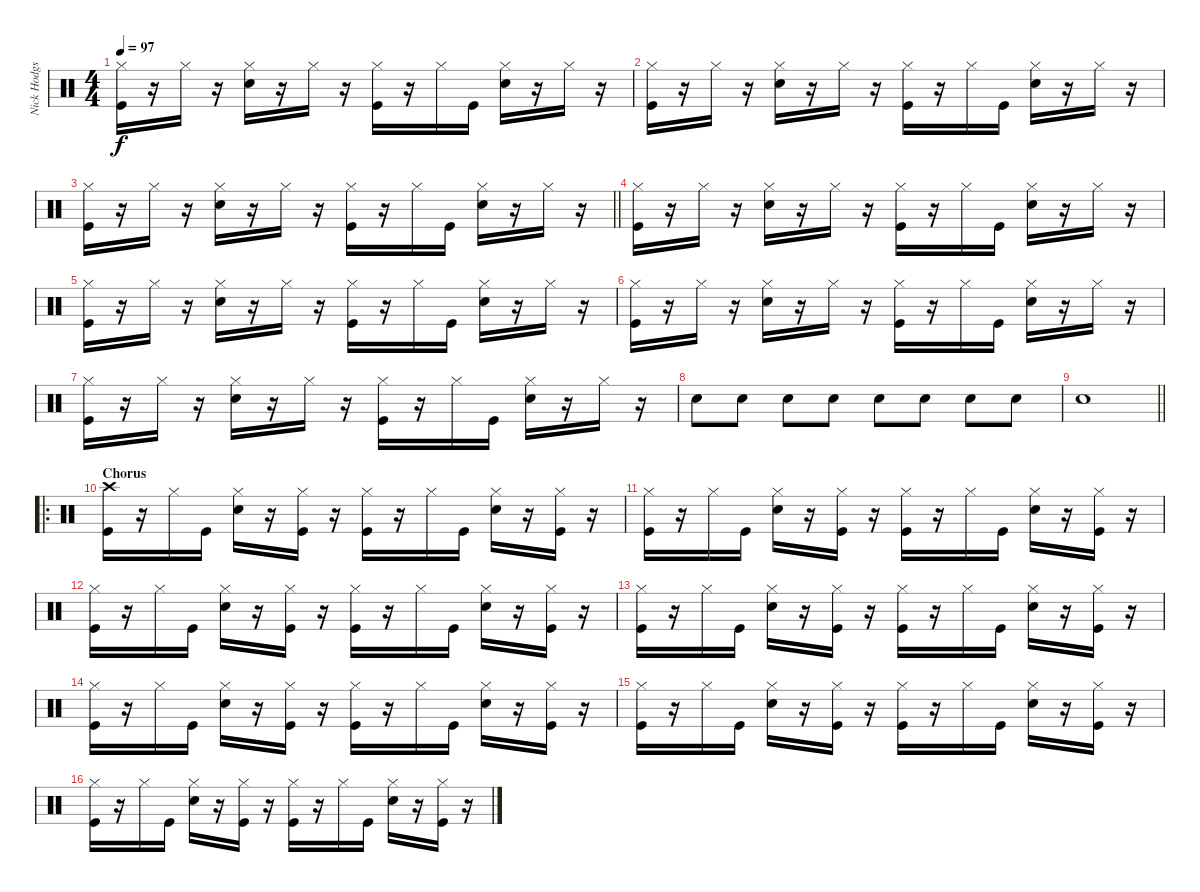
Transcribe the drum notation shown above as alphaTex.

\track ("Nick Hodgson's drums" "Nick Hodgs") {instrument percussion}
\staff {score}
\articulation defaults
\ts (4 4)
\tempo 97
\clef neutral
\ks c
("Hi-Hat (closed)" "Kick (hit)").16{dy f} r.16 "Hi-Hat (closed)".16 r.16 ("Hi-Hat (closed)" "Snare (hit) 2").16 r.16 "Hi-Hat (closed)".16 r.16 ("Hi-Hat (closed)" "Kick (hit)").16 r.16 "Hi-Hat (closed)".16 "Kick (hit)".16 ("Hi-Hat (closed)" "Snare (hit) 2").16 r.16 "Hi-Hat (closed)".16 r.16 |
("Hi-Hat (closed)" "Kick (hit)").16 r.16 "Hi-Hat (closed)".16 r.16 ("Hi-Hat (closed)" "Snare (hit) 2").16 r.16 "Hi-Hat (closed)".16 r.16 ("Hi-Hat (closed)" "Kick (hit)").16 r.16 "Hi-Hat (closed)".16 "Kick (hit)".16 ("Hi-Hat (closed)" "Snare (hit) 2").16 r.16 "Hi-Hat (closed)".16 r.16 |
\barLineRight lightlight
("Hi-Hat (closed)" "Kick (hit)").16 r.16 "Hi-Hat (closed)".16 r.16 ("Hi-Hat (closed)" "Snare (hit) 2").16 r.16 "Hi-Hat (closed)".16 r.16 ("Hi-Hat (closed)" "Kick (hit)").16 r.16 "Hi-Hat (closed)".16 "Kick (hit)".16 ("Hi-Hat (closed)" "Snare (hit) 2").16 r.16 "Hi-Hat (closed)".16 r.16 |
("Hi-Hat (closed)" "Kick (hit)").16 r.16 "Hi-Hat (closed)".16 r.16 ("Hi-Hat (closed)" "Snare (hit) 2").16 r.16 "Hi-Hat (closed)".16 r.16 ("Hi-Hat (closed)" "Kick (hit)").16 r.16 "Hi-Hat (closed)".16 "Kick (hit)".16 ("Hi-Hat (closed)" "Snare (hit) 2").16 r.16 "Hi-Hat (closed)".16 r.16 |
("Hi-Hat (closed)" "Kick (hit)").16 r.16 "Hi-Hat (closed)".16 r.16 ("Hi-Hat (closed)" "Snare (hit) 2").16 r.16 "Hi-Hat (closed)".16 r.16 ("Hi-Hat (closed)" "Kick (hit)").16 r.16 "Hi-Hat (closed)".16 "Kick (hit)".16 ("Hi-Hat (closed)" "Snare (hit) 2").16 r.16 "Hi-Hat (closed)".16 r.16 |
("Hi-Hat (closed)" "Kick (hit)").16 r.16 "Hi-Hat (closed)".16 r.16 ("Hi-Hat (closed)" "Snare (hit) 2").16 r.16 "Hi-Hat (closed)".16 r.16 ("Hi-Hat (closed)" "Kick (hit)").16 r.16 "Hi-Hat (closed)".16 "Kick (hit)".16 ("Hi-Hat (closed)" "Snare (hit) 2").16 r.16 "Hi-Hat (closed)".16 r.16 |
("Hi-Hat (closed)" "Kick (hit)").16 r.16 "Hi-Hat (closed)".16 r.16 ("Hi-Hat (closed)" "Snare (hit) 2").16 r.16 "Hi-Hat (closed)".16 r.16 ("Hi-Hat (closed)" "Kick (hit)").16 r.16 "Hi-Hat (closed)".16 "Kick (hit)".16 ("Hi-Hat (closed)" "Snare (hit) 2").16 r.16 "Hi-Hat (closed)".16 r.16 |
"Snare (hit) 2".8 "Snare (hit) 2".8 "Snare (hit) 2".8 "Snare (hit) 2".8 "Snare (hit) 2".8 "Snare (hit) 2".8 "Snare (hit) 2".8 "Snare (hit) 2".8 |
\barLineRight lightlight "Snare (hit) 2".1
|
\ro
\section ("" "Chorus")
("Crash high (hit)" "Kick (hit)").16 r.16 "Hi-Hat (closed)".16 "Kick (hit)".16 ("Hi-Hat (closed)" "Snare (hit) 2").16 r.16 ("Hi-Hat (closed)" "Kick (hit)").16 r.16 ("Hi-Hat (closed)" "Kick (hit)").16 r.16 "Hi-Hat (closed)".16 "Kick (hit)".16 ("Hi-Hat (closed)" "Snare (hit) 2").16 r.16 ("Hi-Hat (closed)" "Kick (hit)").16 r.16 |
("Hi-Hat (closed)" "Kick (hit)").16 r.16 "Hi-Hat (closed)".16 "Kick (hit)".16 ("Hi-Hat (closed)" "Snare (hit) 2").16 r.16 ("Hi-Hat (closed)" "Kick (hit)").16 r.16 ("Hi-Hat (closed)" "Kick (hit)").16 r.16 "Hi-Hat (closed)".16 "Kick (hit)".16 ("Hi-Hat (closed)" "Snare (hit) 2").16 r.16 ("Hi-Hat (closed)" "Kick (hit)").16 r.16 |
("Hi-Hat (closed)" "Kick (hit)").16 r.16 "Hi-Hat (closed)".16 "Kick (hit)".16 ("Hi-Hat (closed)" "Snare (hit) 2").16 r.16 ("Hi-Hat (closed)" "Kick (hit)").16 r.16 ("Hi-Hat (closed)" "Kick (hit)").16 r.16 "Hi-Hat (closed)".16 "Kick (hit)".16 ("Hi-Hat (closed)" "Snare (hit) 2").16 r.16 ("Hi-Hat (closed)" "Kick (hit)").16 r.16 |
("Hi-Hat (closed)" "Kick (hit)").16 r.16 "Hi-Hat (closed)".16 "Kick (hit)".16 ("Hi-Hat (closed)" "Snare (hit) 2").16 r.16 ("Hi-Hat (closed)" "Kick (hit)").16 r.16 ("Hi-Hat (closed)" "Kick (hit)").16 r.16 "Hi-Hat (closed)".16 "Kick (hit)".16 ("Hi-Hat (closed)" "Snare (hit) 2").16 r.16 ("Hi-Hat (closed)" "Kick (hit)").16 r.16 |
("Hi-Hat (closed)" "Kick (hit)").16 r.16 "Hi-Hat (closed)".16 "Kick (hit)".16 ("Hi-Hat (closed)" "Snare (hit) 2").16 r.16 ("Hi-Hat (closed)" "Kick (hit)").16 r.16 ("Hi-Hat (closed)" "Kick (hit)").16 r.16 "Hi-Hat (closed)".16 "Kick (hit)".16 ("Hi-Hat (closed)" "Snare (hit) 2").16 r.16 ("Hi-Hat (closed)" "Kick (hit)").16 r.16 |
("Hi-Hat (closed)" "Kick (hit)").16 r.16 "Hi-Hat (closed)".16 "Kick (hit)".16 ("Hi-Hat (closed)" "Snare (hit) 2").16 r.16 ("Hi-Hat (closed)" "Kick (hit)").16 r.16 ("Hi-Hat (closed)" "Kick (hit)").16 r.16 "Hi-Hat (closed)".16 "Kick (hit)".16 ("Hi-Hat (closed)" "Snare (hit) 2").16 r.16 ("Hi-Hat (closed)" "Kick (hit)").16 r.16 |
("Hi-Hat (closed)" "Kick (hit)").16 r.16 "Hi-Hat (closed)".16 "Kick (hit)".16 ("Hi-Hat (closed)" "Snare (hit) 2").16 r.16 ("Hi-Hat (closed)" "Kick (hit)").16 r.16 ("Hi-Hat (closed)" "Kick (hit)").16 r.16 "Hi-Hat (closed)".16 "Kick (hit)".16 ("Hi-Hat (closed)" "Snare (hit) 2").16 r.16 ("Hi-Hat (closed)" "Kick (hit)").16 r.16
